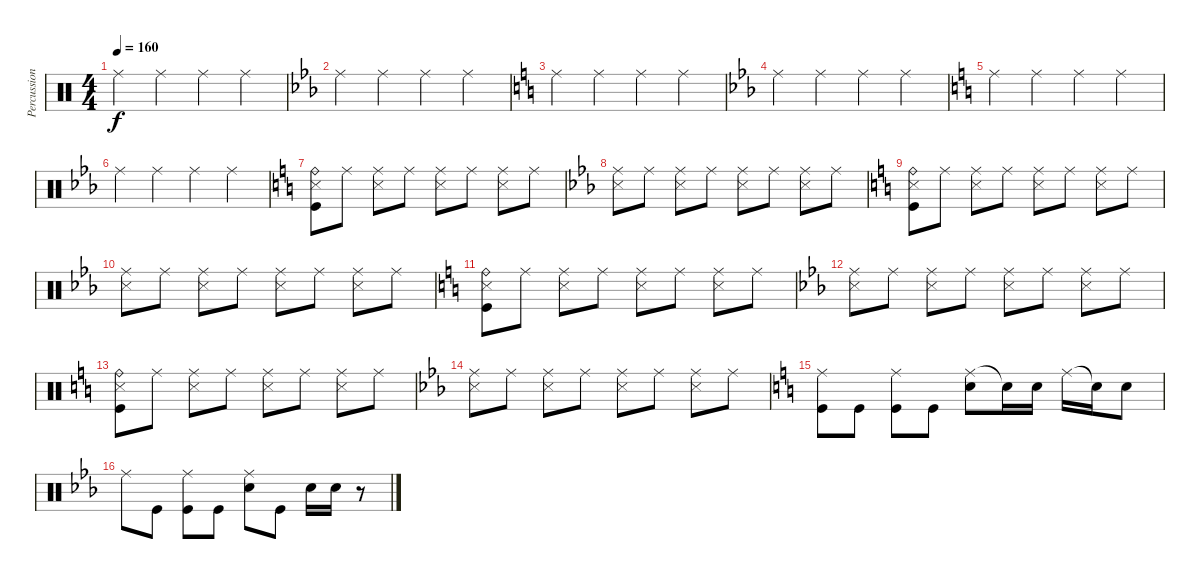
\track ("Percussion" "Percussion") {instrument percussion}
\staff {score}
\articulation defaults
\ts (4 4)
\tempo 160
\clef neutral
\ks c "Ride (middle)".4{dy f} "Ride (middle)".4 "Ride (middle)".4 "Ride (middle)".4
|
\ks cminor "Ride (middle)".4 "Ride (middle)".4 "Ride (middle)".4 "Ride (middle)".4
|
\ks c "Ride (middle)".4 "Ride (middle)".4 "Ride (middle)".4 "Ride (middle)".4
|
\ks cminor "Ride (middle)".4 "Ride (middle)".4 "Ride (middle)".4 "Ride (middle)".4
|
\ks c "Ride (middle)".4 "Ride (middle)".4 "Ride (middle)".4 "Ride (middle)".4
|
\ks cminor "Ride (middle)".4 "Ride (middle)".4 "Ride (middle)".4 "Ride (middle)".4
|
\ks c
("Snare (side stick) 3" "Kick (hit)" "Ride (bell)").8 "Ride (middle)".8 ("Snare (side stick) 3" "Ride (middle)").8 "Ride (middle)".8 ("Snare (side stick) 3" "Ride (middle)").8 "Ride (middle)".8 ("Snare (side stick) 3" "Ride (middle)").8 "Ride (middle)".8 |
\ks cminor
("Snare (side stick) 3" "Ride (middle)").8 "Ride (middle)".8 ("Snare (side stick) 3" "Ride (middle)").8 "Ride (middle)".8 ("Snare (side stick) 3" "Ride (middle)").8 "Ride (middle)".8 ("Snare (side stick) 3" "Ride (middle)").8 "Ride (middle)".8 |
\ks c
("Snare (side stick) 3" "Kick (hit)" "Ride (bell)").8 "Ride (middle)".8 ("Snare (side stick) 3" "Ride (middle)").8 "Ride (middle)".8 ("Snare (side stick) 3" "Ride (middle)").8 "Ride (middle)".8 ("Snare (side stick) 3" "Ride (middle)").8 "Ride (middle)".8 |
\ks cminor
("Snare (side stick) 3" "Ride (middle)").8 "Ride (middle)".8 ("Snare (side stick) 3" "Ride (middle)").8 "Ride (middle)".8 ("Snare (side stick) 3" "Ride (middle)").8 "Ride (middle)".8 ("Snare (side stick) 3" "Ride (middle)").8 "Ride (middle)".8 |
\ks c
("Snare (side stick) 3" "Kick (hit)" "Ride (bell)").8 "Ride (middle)".8 ("Snare (side stick) 3" "Ride (middle)").8 "Ride (middle)".8 ("Snare (side stick) 3" "Ride (middle)").8 "Ride (middle)".8 ("Snare (side stick) 3" "Ride (middle)").8 "Ride (middle)".8 |
\ks cminor
("Snare (side stick) 3" "Ride (middle)").8 "Ride (middle)".8 ("Snare (side stick) 3" "Ride (middle)").8 "Ride (middle)".8 ("Snare (side stick) 3" "Ride (middle)").8 "Ride (middle)".8 ("Snare (side stick) 3" "Ride (middle)").8 "Ride (middle)".8 |
\ks c
("Snare (side stick) 3" "Kick (hit)" "Ride (bell)").8 "Ride (middle)".8 ("Snare (side stick) 3" "Ride (middle)").8 "Ride (middle)".8 ("Snare (side stick) 3" "Ride (middle)").8 "Ride (middle)".8 ("Snare (side stick) 3" "Ride (middle)").8 "Ride (middle)".8 |
\ks cminor
("Snare (side stick) 3" "Ride (middle)").8 "Ride (middle)".8 ("Snare (side stick) 3" "Ride (middle)").8 "Ride (middle)".8 ("Snare (side stick) 3" "Ride (middle)").8 "Ride (middle)".8 ("Snare (side stick) 3" "Ride (middle)").8 "Ride (middle)".8 |
\ks c
("Ride (middle)" "Kick (hit)").8 "Kick (hit)".8 ("Ride (middle)" "Kick (hit)").8 "Kick (hit)".8 ("Ride (middle)" "Electric Snare (hit)").8 "Snare (hit)"{t}.16 "Electric Snare (hit)".16 "Ride (middle)".16 "Snare (hit)"{t}.16 "Electric Snare (hit)".8 |
\ks cminor "Ride (middle)".8 "Kick (hit)".8
("Ride (middle)" "Kick (hit)").8 "Kick (hit)".8 ("Ride (middle)" "Electric Snare (hit)").8 "Kick (hit)".8 "Electric Snare (hit)".16 "Electric Snare (hit)".16 r.8
